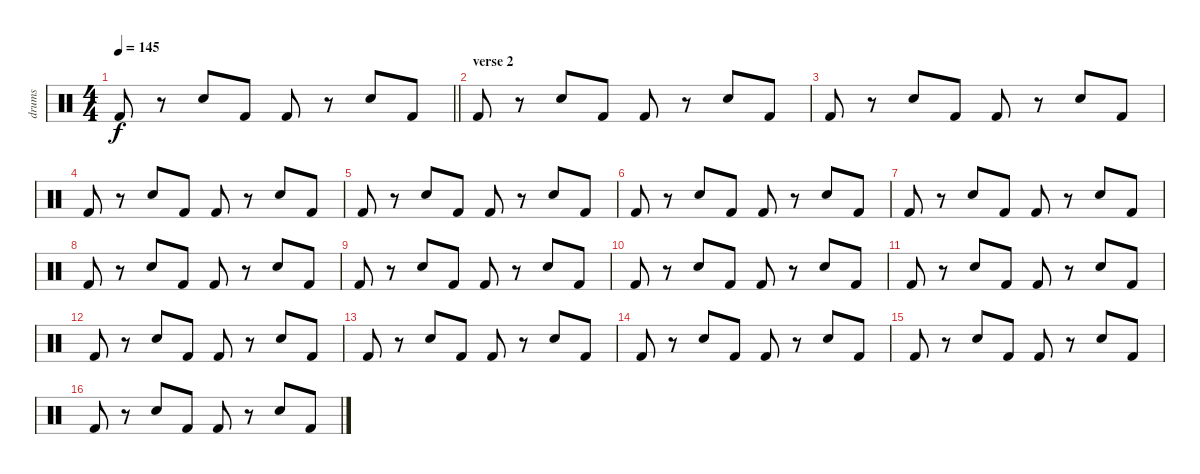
\track ("drums" "drums") {instrument percussion}
\staff {score}
\articulation defaults
\ts (4 4)
\tempo 145
\clef neutral
\barLineRight lightlight
\ks c "Kick (hit) 2".8{dy f}
r.8 "Snare (hit) 2".8 "Kick (hit) 2".8 "Kick (hit) 2".8 r.8 "Snare (hit) 2".8 "Kick (hit) 2".8 |
\section ("" "verse 2")
"Kick (hit) 2".8 r.8 "Snare (hit) 2".8 "Kick (hit) 2".8 "Kick (hit) 2".8 r.8 "Snare (hit) 2".8 "Kick (hit) 2".8 |
"Kick (hit) 2".8 r.8 "Snare (hit) 2".8 "Kick (hit) 2".8 "Kick (hit) 2".8 r.8 "Snare (hit) 2".8 "Kick (hit) 2".8 |
"Kick (hit) 2".8 r.8 "Snare (hit) 2".8 "Kick (hit) 2".8 "Kick (hit) 2".8 r.8 "Snare (hit) 2".8 "Kick (hit) 2".8 |
"Kick (hit) 2".8 r.8 "Snare (hit) 2".8 "Kick (hit) 2".8 "Kick (hit) 2".8 r.8 "Snare (hit) 2".8 "Kick (hit) 2".8 |
"Kick (hit) 2".8 r.8 "Snare (hit) 2".8 "Kick (hit) 2".8 "Kick (hit) 2".8 r.8 "Snare (hit) 2".8 "Kick (hit) 2".8 |
"Kick (hit) 2".8 r.8 "Snare (hit) 2".8 "Kick (hit) 2".8 "Kick (hit) 2".8 r.8 "Snare (hit) 2".8 "Kick (hit) 2".8 |
"Kick (hit) 2".8 r.8 "Snare (hit) 2".8 "Kick (hit) 2".8 "Kick (hit) 2".8 r.8 "Snare (hit) 2".8 "Kick (hit) 2".8 |
"Kick (hit) 2".8 r.8 "Snare (hit) 2".8 "Kick (hit) 2".8 "Kick (hit) 2".8 r.8 "Snare (hit) 2".8 "Kick (hit) 2".8 |
"Kick (hit) 2".8 r.8 "Snare (hit) 2".8 "Kick (hit) 2".8 "Kick (hit) 2".8 r.8 "Snare (hit) 2".8 "Kick (hit) 2".8 |
"Kick (hit) 2".8 r.8 "Snare (hit) 2".8 "Kick (hit) 2".8 "Kick (hit) 2".8 r.8 "Snare (hit) 2".8 "Kick (hit) 2".8 |
"Kick (hit) 2".8 r.8 "Snare (hit) 2".8 "Kick (hit) 2".8 "Kick (hit) 2".8 r.8 "Snare (hit) 2".8 "Kick (hit) 2".8 |
"Kick (hit) 2".8 r.8 "Snare (hit) 2".8 "Kick (hit) 2".8 "Kick (hit) 2".8 r.8 "Snare (hit) 2".8 "Kick (hit) 2".8 |
"Kick (hit) 2".8 r.8 "Snare (hit) 2".8 "Kick (hit) 2".8 "Kick (hit) 2".8 r.8 "Snare (hit) 2".8 "Kick (hit) 2".8 |
"Kick (hit) 2".8 r.8 "Snare (hit) 2".8 "Kick (hit) 2".8 "Kick (hit) 2".8 r.8 "Snare (hit) 2".8 "Kick (hit) 2".8 |
"Kick (hit) 2".8 r.8 "Snare (hit) 2".8 "Kick (hit) 2".8 "Kick (hit) 2".8 r.8 "Snare (hit) 2".8 "Kick (hit) 2".8
